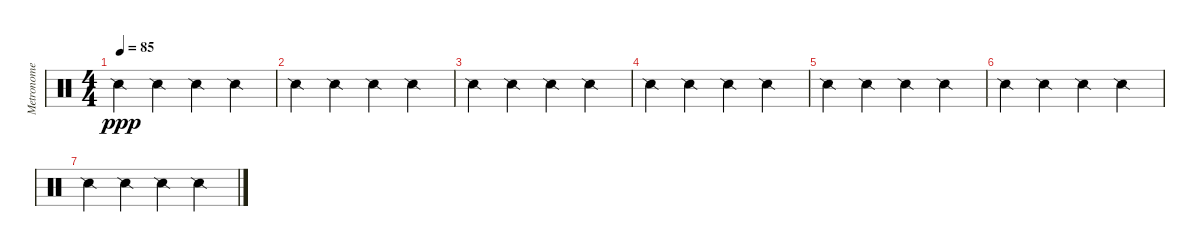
\track ("Metronome" "Metronome") {instrument percussion}
\staff {score}
\articulation defaults
\ts (4 4)
\tempo 85
\clef neutral
\ks c "Snare (side stick) 2".4{dy ppp} "Snare (side stick) 2".4 "Snare (side stick) 2".4 "Snare (side stick) 2".4
|
"Snare (side stick) 2".4 "Snare (side stick) 2".4 "Snare (side stick) 2".4 "Snare (side stick) 2".4 |
"Snare (side stick) 2".4 "Snare (side stick) 2".4 "Snare (side stick) 2".4 "Snare (side stick) 2".4 |
"Snare (side stick) 2".4{volume 9} "Snare (side stick) 2".4 "Snare (side stick) 2".4 "Snare (side stick) 2".4 |
"Snare (side stick) 2".4{volume 7} "Snare (side stick) 2".4 "Snare (side stick) 2".4 "Snare (side stick) 2".4 |
"Snare (side stick) 2".4{volume 5} "Snare (side stick) 2".4 "Snare (side stick) 2".4 "Snare (side stick) 2".4 |
"Snare (side stick) 2".4{volume 3} "Snare (side stick) 2".4 "Snare (side stick) 2".4 "Snare (side stick) 2".4
